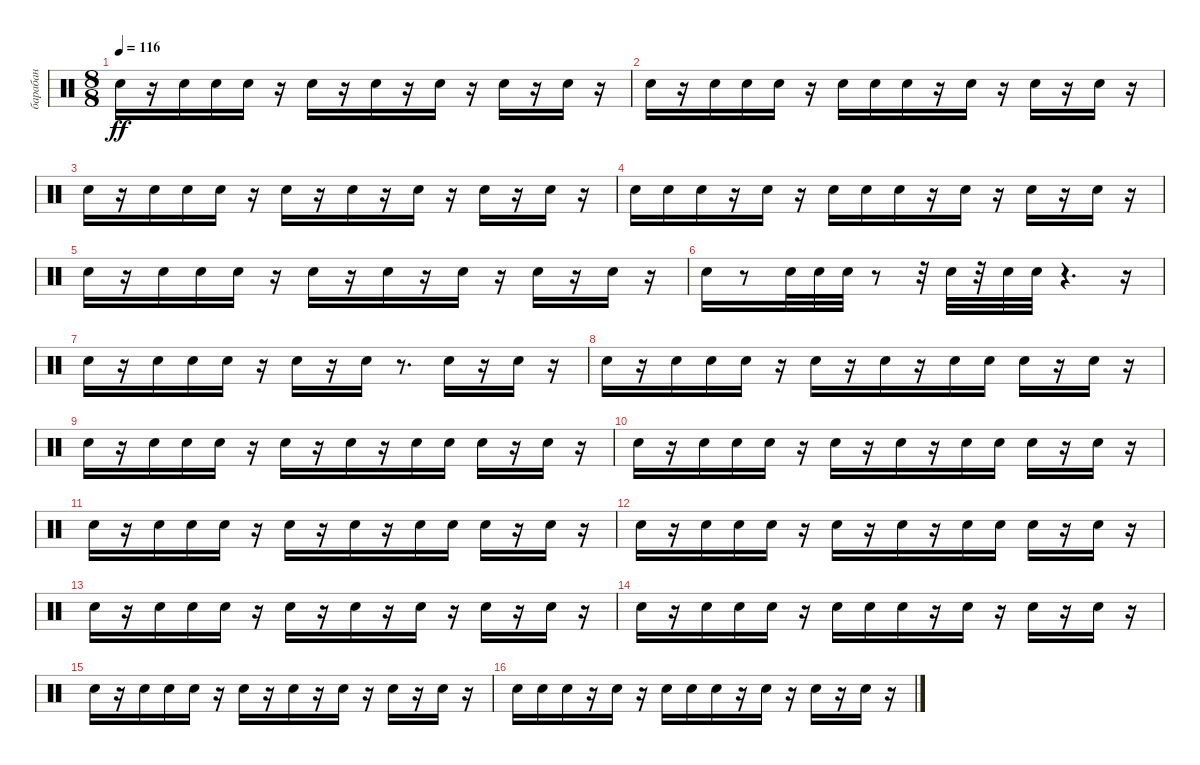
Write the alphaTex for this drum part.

\track ("барабан" "барабан") {instrument percussion}
\staff {score}
\articulation defaults
\ts (8 8)
\tempo 116
\clef neutral
\ks c "Snare (hit) 2".16{dy ff}
r.16 "Snare (hit) 2".16 "Snare (hit) 2".16 "Snare (hit) 2".16 r.16 "Snare (hit) 2".16 r.16 "Snare (hit) 2".16 r.16 "Snare (hit) 2".16 r.16 "Snare (hit) 2".16 r.16 "Snare (hit) 2".16 r.16 |
"Snare (hit) 2".16 r.16 "Snare (hit) 2".16 "Snare (hit) 2".16 "Snare (hit) 2".16 r.16 "Snare (hit) 2".16 "Snare (hit) 2".16 "Snare (hit) 2".16 r.16 "Snare (hit) 2".16 r.16 "Snare (hit) 2".16 r.16 "Snare (hit) 2".16 r.16 |
"Snare (hit) 2".16 r.16 "Snare (hit) 2".16 "Snare (hit) 2".16 "Snare (hit) 2".16 r.16 "Snare (hit) 2".16 r.16 "Snare (hit) 2".16 r.16 "Snare (hit) 2".16 r.16 "Snare (hit) 2".16 r.16 "Snare (hit) 2".16 r.16 |
"Snare (hit) 2".16 "Snare (hit) 2".16 "Snare (hit) 2".16 r.16 "Snare (hit) 2".16 r.16 "Snare (hit) 2".16 "Snare (hit) 2".16 "Snare (hit) 2".16 r.16 "Snare (hit) 2".16 r.16 "Snare (hit) 2".16 r.16 "Snare (hit) 2".16 r.16 |
"Snare (hit) 2".16 r.16 "Snare (hit) 2".16 "Snare (hit) 2".16 "Snare (hit) 2".16 r.16 "Snare (hit) 2".16 r.16 "Snare (hit) 2".16 r.16 "Snare (hit) 2".16 r.16 "Snare (hit) 2".16 r.16 "Snare (hit) 2".16 r.16 |
"Snare (hit) 2".16 r.8 "Snare (hit) 2".32 "Snare (hit) 2".32 "Snare (hit) 2".32 r.8 r.32 "Snare (hit) 2".32 r.32 "Snare (hit) 2".32 "Snare (hit) 2".32 r.4{d} r.16 |
"Snare (hit) 2".16 r.16 "Snare (hit) 2".16 "Snare (hit) 2".16 "Snare (hit) 2".16 r.16 "Snare (hit) 2".16 r.16 "Snare (hit) 2".16 r.8{d} "Snare (hit) 2".16 r.16 "Snare (hit) 2".16 r.16 |
"Snare (hit) 2".16 r.16 "Snare (hit) 2".16 "Snare (hit) 2".16 "Snare (hit) 2".16 r.16 "Snare (hit) 2".16 r.16 "Snare (hit) 2".16 r.16 "Snare (hit) 2".16 "Snare (hit) 2".16 "Snare (hit) 2".16 r.16 "Snare (hit) 2".16 r.16 |
"Snare (hit) 2".16 r.16 "Snare (hit) 2".16 "Snare (hit) 2".16 "Snare (hit) 2".16 r.16 "Snare (hit) 2".16 r.16 "Snare (hit) 2".16 r.16 "Snare (hit) 2".16 "Snare (hit) 2".16 "Snare (hit) 2".16 r.16 "Snare (hit) 2".16 r.16 |
"Snare (hit) 2".16 r.16 "Snare (hit) 2".16 "Snare (hit) 2".16 "Snare (hit) 2".16 r.16 "Snare (hit) 2".16 r.16 "Snare (hit) 2".16 r.16 "Snare (hit) 2".16 "Snare (hit) 2".16 "Snare (hit) 2".16 r.16 "Snare (hit) 2".16 r.16 |
"Snare (hit) 2".16 r.16 "Snare (hit) 2".16 "Snare (hit) 2".16 "Snare (hit) 2".16 r.16 "Snare (hit) 2".16 r.16 "Snare (hit) 2".16 r.16 "Snare (hit) 2".16 "Snare (hit) 2".16 "Snare (hit) 2".16 r.16 "Snare (hit) 2".16 r.16 |
"Snare (hit) 2".16 r.16 "Snare (hit) 2".16 "Snare (hit) 2".16 "Snare (hit) 2".16 r.16 "Snare (hit) 2".16 r.16 "Snare (hit) 2".16 r.16 "Snare (hit) 2".16 "Snare (hit) 2".16 "Snare (hit) 2".16 r.16 "Snare (hit) 2".16 r.16 |
"Snare (hit) 2".16 r.16 "Snare (hit) 2".16 "Snare (hit) 2".16 "Snare (hit) 2".16 r.16 "Snare (hit) 2".16 r.16 "Snare (hit) 2".16 r.16 "Snare (hit) 2".16 r.16 "Snare (hit) 2".16 r.16 "Snare (hit) 2".16 r.16 |
"Snare (hit) 2".16 r.16 "Snare (hit) 2".16 "Snare (hit) 2".16 "Snare (hit) 2".16 r.16 "Snare (hit) 2".16 "Snare (hit) 2".16 "Snare (hit) 2".16 r.16 "Snare (hit) 2".16 r.16 "Snare (hit) 2".16 r.16 "Snare (hit) 2".16 r.16 |
"Snare (hit) 2".16 r.16 "Snare (hit) 2".16 "Snare (hit) 2".16 "Snare (hit) 2".16 r.16 "Snare (hit) 2".16 r.16 "Snare (hit) 2".16 r.16 "Snare (hit) 2".16 r.16 "Snare (hit) 2".16 r.16 "Snare (hit) 2".16 r.16 |
"Snare (hit) 2".16 "Snare (hit) 2".16 "Snare (hit) 2".16 r.16 "Snare (hit) 2".16 r.16 "Snare (hit) 2".16 "Snare (hit) 2".16 "Snare (hit) 2".16 r.16 "Snare (hit) 2".16 r.16 "Snare (hit) 2".16 r.16 "Snare (hit) 2".16 r.16
